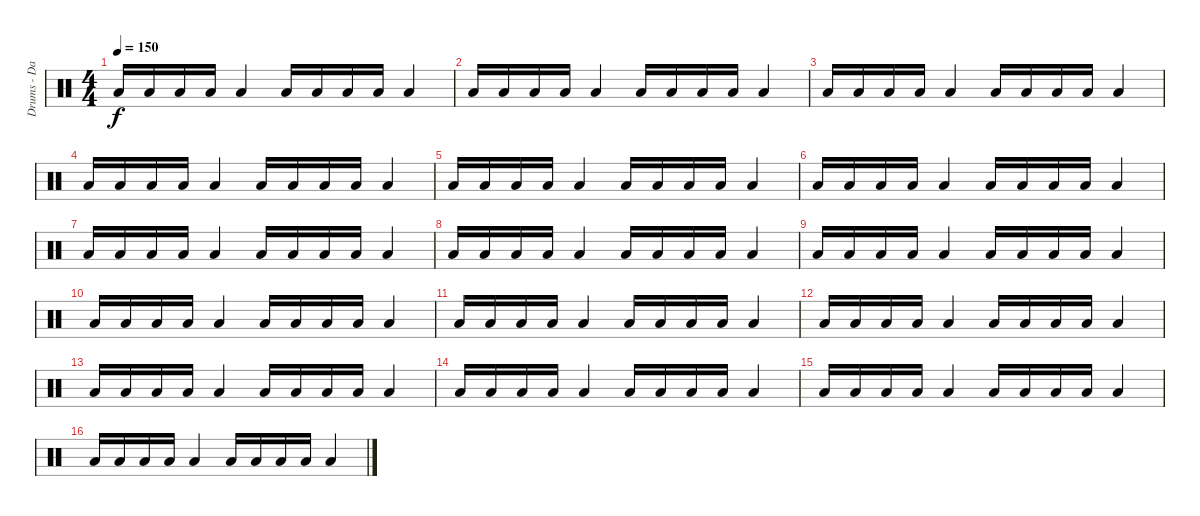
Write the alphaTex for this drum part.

\track ("Drums - Dan Zimmermann" "Drums - Da") {instrument percussion}
\staff {score}
\articulation defaults
\ts (4 4)
\tempo 150
\clef neutral
\ks c "Low Floor Tom (hit)".16{dy f} "Low Floor Tom (hit)".16 "Low Floor Tom (hit)".16 "Low Floor Tom (hit)".16 "Low Floor Tom (hit)".4 "Low Floor Tom (hit)".16 "Low Floor Tom (hit)".16 "Low Floor Tom (hit)".16 "Low Floor Tom (hit)".16 "Low Floor Tom (hit)".4
|
"Low Floor Tom (hit)".16 "Low Floor Tom (hit)".16 "Low Floor Tom (hit)".16 "Low Floor Tom (hit)".16 "Low Floor Tom (hit)".4 "Low Floor Tom (hit)".16 "Low Floor Tom (hit)".16 "Low Floor Tom (hit)".16 "Low Floor Tom (hit)".16 "Low Floor Tom (hit)".4 |
"Low Floor Tom (hit)".16 "Low Floor Tom (hit)".16 "Low Floor Tom (hit)".16 "Low Floor Tom (hit)".16 "Low Floor Tom (hit)".4 "Low Floor Tom (hit)".16 "Low Floor Tom (hit)".16 "Low Floor Tom (hit)".16 "Low Floor Tom (hit)".16 "Low Floor Tom (hit)".4 |
"Low Floor Tom (hit)".16 "Low Floor Tom (hit)".16 "Low Floor Tom (hit)".16 "Low Floor Tom (hit)".16 "Low Floor Tom (hit)".4 "Low Floor Tom (hit)".16 "Low Floor Tom (hit)".16 "Low Floor Tom (hit)".16 "Low Floor Tom (hit)".16 "Low Floor Tom (hit)".4 |
"Low Floor Tom (hit)".16 "Low Floor Tom (hit)".16 "Low Floor Tom (hit)".16 "Low Floor Tom (hit)".16 "Low Floor Tom (hit)".4 "Low Floor Tom (hit)".16 "Low Floor Tom (hit)".16 "Low Floor Tom (hit)".16 "Low Floor Tom (hit)".16 "Low Floor Tom (hit)".4 |
"Low Floor Tom (hit)".16 "Low Floor Tom (hit)".16 "Low Floor Tom (hit)".16 "Low Floor Tom (hit)".16 "Low Floor Tom (hit)".4 "Low Floor Tom (hit)".16 "Low Floor Tom (hit)".16 "Low Floor Tom (hit)".16 "Low Floor Tom (hit)".16 "Low Floor Tom (hit)".4 |
"Low Floor Tom (hit)".16 "Low Floor Tom (hit)".16 "Low Floor Tom (hit)".16 "Low Floor Tom (hit)".16 "Low Floor Tom (hit)".4 "Low Floor Tom (hit)".16 "Low Floor Tom (hit)".16 "Low Floor Tom (hit)".16 "Low Floor Tom (hit)".16 "Low Floor Tom (hit)".4 |
"Low Floor Tom (hit)".16 "Low Floor Tom (hit)".16 "Low Floor Tom (hit)".16 "Low Floor Tom (hit)".16 "Low Floor Tom (hit)".4 "Low Floor Tom (hit)".16 "Low Floor Tom (hit)".16 "Low Floor Tom (hit)".16 "Low Floor Tom (hit)".16 "Low Floor Tom (hit)".4 |
"Low Floor Tom (hit)".16 "Low Floor Tom (hit)".16 "Low Floor Tom (hit)".16 "Low Floor Tom (hit)".16 "Low Floor Tom (hit)".4 "Low Floor Tom (hit)".16 "Low Floor Tom (hit)".16 "Low Floor Tom (hit)".16 "Low Floor Tom (hit)".16 "Low Floor Tom (hit)".4 |
"Low Floor Tom (hit)".16 "Low Floor Tom (hit)".16 "Low Floor Tom (hit)".16 "Low Floor Tom (hit)".16 "Low Floor Tom (hit)".4 "Low Floor Tom (hit)".16 "Low Floor Tom (hit)".16 "Low Floor Tom (hit)".16 "Low Floor Tom (hit)".16 "Low Floor Tom (hit)".4 |
"Low Floor Tom (hit)".16 "Low Floor Tom (hit)".16 "Low Floor Tom (hit)".16 "Low Floor Tom (hit)".16 "Low Floor Tom (hit)".4 "Low Floor Tom (hit)".16 "Low Floor Tom (hit)".16 "Low Floor Tom (hit)".16 "Low Floor Tom (hit)".16 "Low Floor Tom (hit)".4 |
"Low Floor Tom (hit)".16 "Low Floor Tom (hit)".16 "Low Floor Tom (hit)".16 "Low Floor Tom (hit)".16 "Low Floor Tom (hit)".4 "Low Floor Tom (hit)".16 "Low Floor Tom (hit)".16 "Low Floor Tom (hit)".16 "Low Floor Tom (hit)".16 "Low Floor Tom (hit)".4 |
"Low Floor Tom (hit)".16 "Low Floor Tom (hit)".16 "Low Floor Tom (hit)".16 "Low Floor Tom (hit)".16 "Low Floor Tom (hit)".4 "Low Floor Tom (hit)".16 "Low Floor Tom (hit)".16 "Low Floor Tom (hit)".16 "Low Floor Tom (hit)".16 "Low Floor Tom (hit)".4 |
"Low Floor Tom (hit)".16 "Low Floor Tom (hit)".16 "Low Floor Tom (hit)".16 "Low Floor Tom (hit)".16 "Low Floor Tom (hit)".4 "Low Floor Tom (hit)".16 "Low Floor Tom (hit)".16 "Low Floor Tom (hit)".16 "Low Floor Tom (hit)".16 "Low Floor Tom (hit)".4 |
"Low Floor Tom (hit)".16 "Low Floor Tom (hit)".16 "Low Floor Tom (hit)".16 "Low Floor Tom (hit)".16 "Low Floor Tom (hit)".4 "Low Floor Tom (hit)".16 "Low Floor Tom (hit)".16 "Low Floor Tom (hit)".16 "Low Floor Tom (hit)".16 "Low Floor Tom (hit)".4 |
"Low Floor Tom (hit)".16 "Low Floor Tom (hit)".16 "Low Floor Tom (hit)".16 "Low Floor Tom (hit)".16 "Low Floor Tom (hit)".4 "Low Floor Tom (hit)".16 "Low Floor Tom (hit)".16 "Low Floor Tom (hit)".16 "Low Floor Tom (hit)".16 "Low Floor Tom (hit)".4
